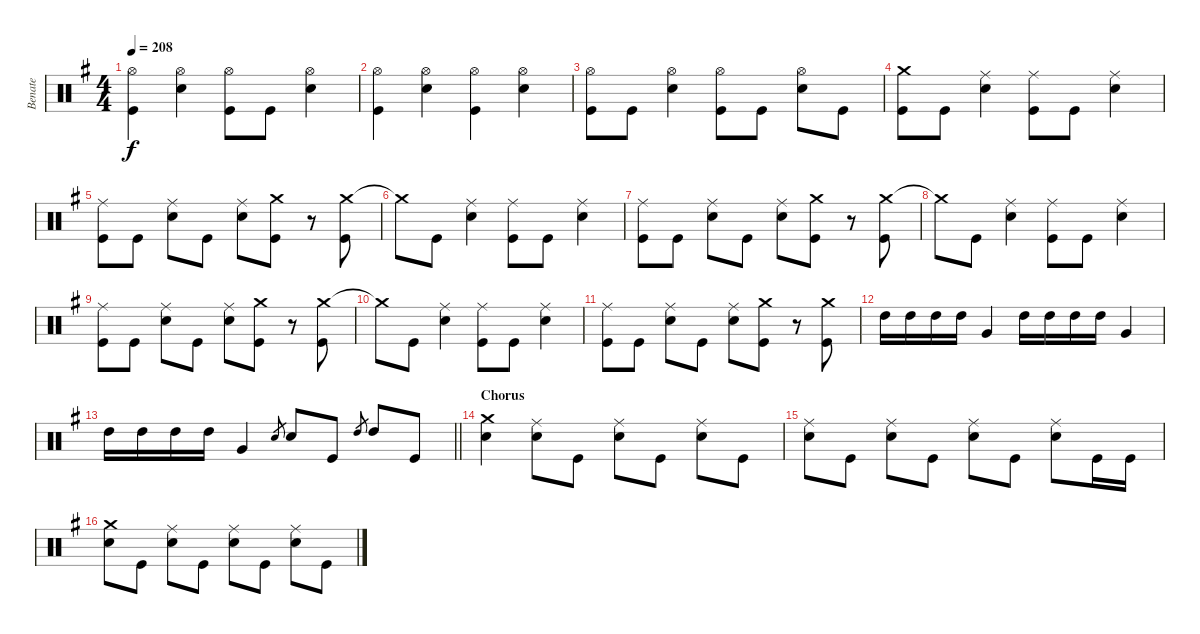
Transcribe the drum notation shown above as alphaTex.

\track ("Benate" "Benate") {instrument percussion}
\staff {score}
\articulation defaults
\ts (4 4)
\tempo 208
\clef neutral
\ks g
("Hi-Hat (open)" "Kick (hit)").4{dy f} ("Hi-Hat (open)" "Snare (hit) 2").4 ("Hi-Hat (open)" "Kick (hit)").8 "Kick (hit)".8 ("Hi-Hat (open)" "Snare (hit) 2").4 |
("Hi-Hat (open)" "Kick (hit)").4 ("Hi-Hat (open)" "Snare (hit) 2").4 ("Hi-Hat (open)" "Kick (hit)").4 ("Hi-Hat (open)" "Snare (hit) 2").4 |
("Hi-Hat (open)" "Kick (hit)").8 "Kick (hit)".8 ("Hi-Hat (open)" "Snare (hit) 2").4 ("Hi-Hat (open)" "Kick (hit)").8 "Kick (hit)".8 ("Hi-Hat (open)" "Snare (hit) 2").8 "Kick (hit)".8 |
("Crash medium (hit)" "Kick (hit)").8 "Kick (hit)".8 ("Ride (middle)" "Snare (hit) 2").4 ("Ride (middle)" "Kick (hit)").8 "Kick (hit)".8 ("Ride (middle)" "Snare (hit) 2").4 |
("Ride (middle)" "Kick (hit)").8 "Kick (hit)".8 ("Ride (middle)" "Snare (hit) 2").8 "Kick (hit)".8 ("Ride (middle)" "Snare (hit) 2").8 ("Crash medium (hit)" "Kick (hit)").8 r.8 ("Crash medium (hit)" "Kick (hit)").8 |
"Crash medium (hit)"{t}.8 "Kick (hit)".8 ("Ride (middle)" "Snare (hit) 2").4 ("Ride (middle)" "Kick (hit)").8 "Kick (hit)".8 ("Ride (middle)" "Snare (hit) 2").4 |
("Ride (middle)" "Kick (hit)").8 "Kick (hit)".8 ("Ride (middle)" "Snare (hit) 2").8 "Kick (hit)".8 ("Ride (middle)" "Snare (hit) 2").8 ("Crash medium (hit)" "Kick (hit)").8 r.8 ("Crash medium (hit)" "Kick (hit)").8 |
"Crash medium (hit)"{t}.8 "Kick (hit)".8 ("Ride (middle)" "Snare (hit) 2").4 ("Ride (middle)" "Kick (hit)").8 "Kick (hit)".8 ("Ride (middle)" "Snare (hit) 2").4 |
("Ride (middle)" "Kick (hit)").8 "Kick (hit)".8 ("Ride (middle)" "Snare (hit) 2").8 "Kick (hit)".8 ("Ride (middle)" "Snare (hit) 2").8 ("Crash medium (hit)" "Kick (hit)").8 r.8 ("Crash medium (hit)" "Kick (hit)").8 |
"Crash medium (hit)"{t}.8 "Kick (hit)".8 ("Ride (middle)" "Snare (hit) 2").4 ("Ride (middle)" "Kick (hit)").8 "Kick (hit)".8 ("Ride (middle)" "Snare (hit) 2").4 |
("Ride (middle)" "Kick (hit)").8 "Kick (hit)".8 ("Ride (middle)" "Snare (hit) 2").8 "Kick (hit)".8 ("Ride (middle)" "Snare (hit) 2").8 ("Crash medium (hit)" "Kick (hit)").8 r.8 ("Crash medium (hit)" "Kick (hit)").8 |
"High Tom (hit)".16 "High Tom (hit)".16 "High Tom (hit)".16 "High Tom (hit)".16 "Very Low Tom (hit)".4 "High Tom (hit)".16 "High Tom (hit)".16 "High Tom (hit)".16 "High Tom (hit)".16 "Very Low Tom (hit)".4 |
\barLineRight lightlight "High Tom (hit)".16 "High Tom (hit)".16 "High Tom (hit)".16 "High Tom (hit)".16 "Very Low Tom (hit)".4 "Snare (hit) 2".8{gr} "Snare (hit) 2".8 "Kick (hit)".8 "High Tom (hit)".8{gr} "High Tom (hit)".8 "Kick (hit)".8
|
\section ("" "Chorus")
("Crash medium (hit)" "Snare (hit) 2").4 ("Ride (middle)" "Snare (hit) 2").8 "Kick (hit)".8 ("Ride (middle)" "Snare (hit) 2").8 "Kick (hit)".8 ("Ride (middle)" "Snare (hit) 2").8 "Kick (hit)".8 |
("Ride (middle)" "Snare (hit) 2").8 "Kick (hit)".8 ("Ride (middle)" "Snare (hit) 2").8 "Kick (hit)".8 ("Ride (middle)" "Snare (hit) 2").8 "Kick (hit)".8 ("Ride (middle)" "Snare (hit) 2").8 "Kick (hit)".16 "Kick (hit)".16 |
("Crash medium (hit)" "Snare (hit) 2").8 "Kick (hit)".8 ("Ride (middle)" "Snare (hit) 2").8 "Kick (hit)".8 ("Ride (middle)" "Snare (hit) 2").8 "Kick (hit)".8 ("Ride (middle)" "Snare (hit) 2").8 "Kick (hit)".8
